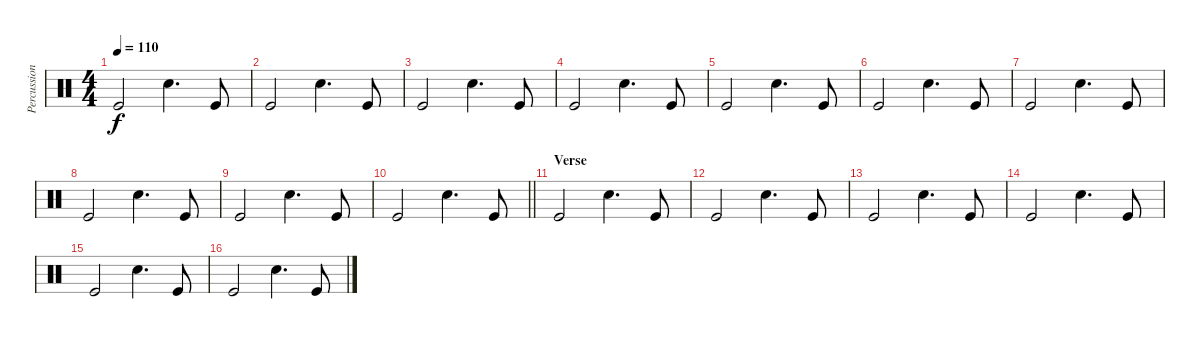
\track ("Percussion" "Percussion") {instrument percussion}
\staff {score}
\articulation defaults
\ts (4 4)
\tempo 110
\clef neutral
\ks c "Kick (hit)".2{dy f} "Electric Snare (hit)".4{d} "Kick (hit)".8
|
"Kick (hit)".2 "Electric Snare (hit)".4{d} "Kick (hit)".8 |
"Kick (hit)".2 "Electric Snare (hit)".4{d} "Kick (hit)".8 |
"Kick (hit)".2 "Electric Snare (hit)".4{d} "Kick (hit)".8 |
"Kick (hit)".2 "Electric Snare (hit)".4{d} "Kick (hit)".8 |
"Kick (hit)".2 "Electric Snare (hit)".4{d} "Kick (hit)".8 |
"Kick (hit)".2 "Electric Snare (hit)".4{d} "Kick (hit)".8 |
"Kick (hit)".2 "Electric Snare (hit)".4{d} "Kick (hit)".8 |
"Kick (hit)".2 "Electric Snare (hit)".4{d} "Kick (hit)".8 |
\barLineRight lightlight "Kick (hit)".2 "Electric Snare (hit)".4{d} "Kick (hit)".8
|
\section ("" "Verse")
"Kick (hit)".2 "Electric Snare (hit)".4{d} "Kick (hit)".8 |
"Kick (hit)".2 "Electric Snare (hit)".4{d} "Kick (hit)".8 |
"Kick (hit)".2 "Electric Snare (hit)".4{d} "Kick (hit)".8 |
"Kick (hit)".2 "Electric Snare (hit)".4{d} "Kick (hit)".8 |
"Kick (hit)".2 "Electric Snare (hit)".4{d} "Kick (hit)".8 |
"Kick (hit)".2 "Electric Snare (hit)".4{d} "Kick (hit)".8
